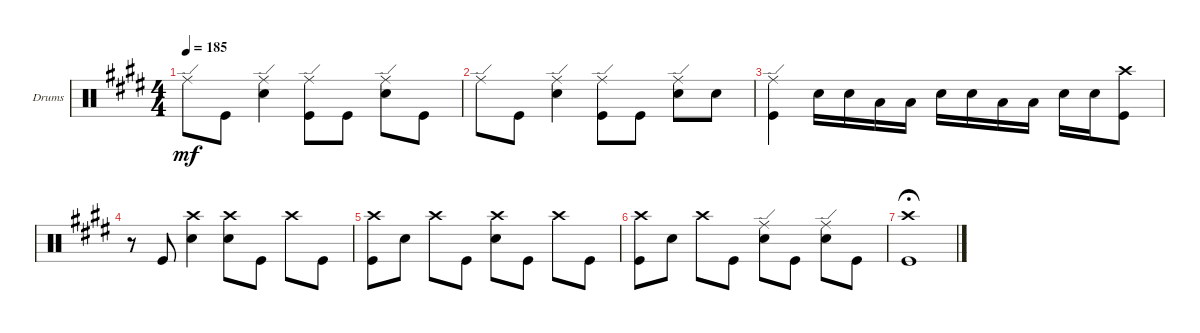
\defaultSystemsLayout 4
\bracketExtendMode groupsimilarinstruments
\firstSystemTrackNameOrientation horizontal
\otherSystemsTrackNameOrientation horizontal
\track ("Drums" "Drums") {instrument percussion}
\staff {score}
\articulation defaults
\ts (4 4)
\tempo 185
\clef neutral
\ks e "Ride (edge)".8{dy mf} "Kick (hit)".8
("Snare (hit) 2" "Ride (edge)").4 ("Kick (hit)" "Ride (edge)").8 "Kick (hit)".8 ("Snare (hit) 2" "Ride (edge)").8 "Kick (hit)".8 |
"Ride (edge)".8 "Kick (hit)".8 ("Snare (hit) 2" "Ride (edge)").4 ("Kick (hit)" "Ride (edge)").8 "Kick (hit)".8 ("Snare (hit) 2" "Ride (edge)").8 "Snare (hit) 2".8 |
("Ride (edge)" "Kick (hit)").4 "Snare (hit) 2".16 "Snare (hit) 2".16 "Low Tom (hit)".16 "Low Tom (hit)".16 "Snare (hit) 2".16 "Snare (hit) 2".16 "Low Tom (hit)".16 "Low Tom (hit)".16 "Snare (hit) 2".16 "Snare (hit) 2".16 ("Kick (hit)" "Crash high (hit)").8 |
r.8 "Kick (hit)".8 ("Snare (hit) 2" "Crash high (hit)").4 ("Snare (hit) 2" "Crash high (hit)").8 "Kick (hit)".8 "Crash high (hit)".8 "Kick (hit)".8 |
("Kick (hit)" "Crash high (hit)").8 "Snare (hit) 2".8 "Crash high (hit)".8 "Kick (hit)".8 ("Crash high (hit)" "Snare (hit) 2").8 "Kick (hit)".8 "Crash high (hit)".8 "Kick (hit)".8 |
("Kick (hit)" "Crash high (hit)").8 "Snare (hit) 2".8 "Crash high (hit)".8 "Kick (hit)".8 ("Snare (hit) 2" "Ride (edge)").8 "Kick (hit)".8 ("Snare (hit) 2" "Ride (edge)").8 "Kick (hit)".8 |
("Kick (hit)" "Crash high (hit)").1{fermata (medium 1)}
